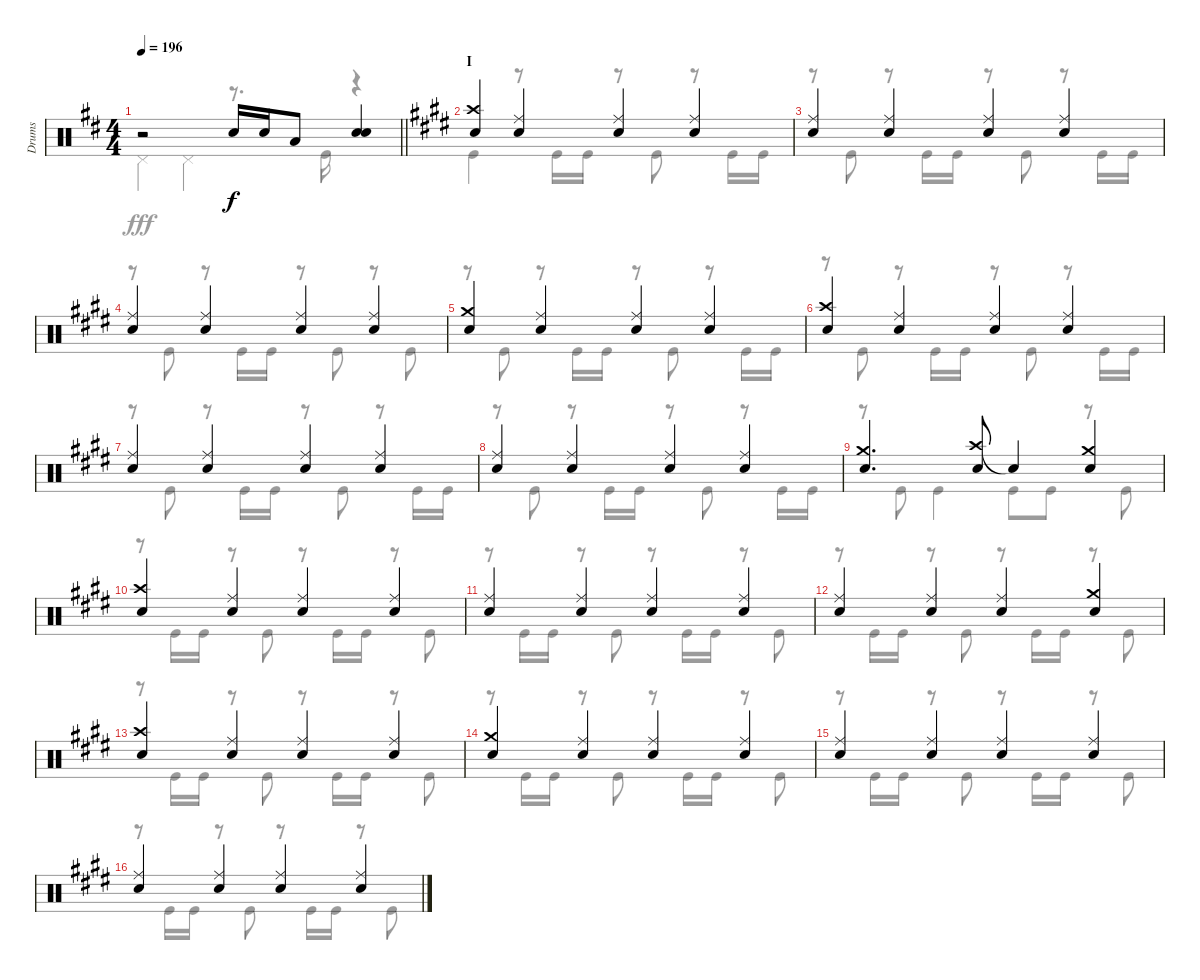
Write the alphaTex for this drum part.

\track ("Drums" "Drums") {instrument percussion}
\staff {score}
\articulation defaults
\voice
\ts (4 4)
\tempo 196
\clef neutral
\barLineRight lightlight
\ks d
r.2{dy f} "Snare (hit) 2".16 "Snare (hit) 2".16 "Low Tom (hit)".8 ("Snare (hit) 2" "Snare (hit) 2").4 |
\section ("" "I")
\ks e
("Crash high (hit)" "Snare (hit) 2").4 ("Ride (middle)" "Snare (hit) 2").4 ("Ride (middle)" "Snare (hit) 2").4 ("Ride (middle)" "Snare (hit) 2").4 |
("Ride (middle)" "Snare (hit) 2").4 ("Ride (middle)" "Snare (hit) 2").4 ("Ride (middle)" "Snare (hit) 2").4 ("Ride (middle)" "Snare (hit) 2").4 |
("Ride (middle)" "Snare (hit) 2").4 ("Ride (middle)" "Snare (hit) 2").4 ("Ride (middle)" "Snare (hit) 2").4 ("Ride (middle)" "Snare (hit) 2").4 |
("Crash medium (hit)" "Snare (hit) 2").4 ("Ride (middle)" "Snare (hit) 2").4 ("Ride (middle)" "Snare (hit) 2").4 ("Ride (middle)" "Snare (hit) 2").4 |
("Crash high (hit)" "Snare (hit) 2").4 ("Ride (middle)" "Snare (hit) 2").4 ("Ride (middle)" "Snare (hit) 2").4 ("Ride (middle)" "Snare (hit) 2").4 |
("Ride (middle)" "Snare (hit) 2").4 ("Ride (middle)" "Snare (hit) 2").4 ("Ride (middle)" "Snare (hit) 2").4 ("Ride (middle)" "Snare (hit) 2").4 |
("Ride (middle)" "Snare (hit) 2").4 ("Ride (middle)" "Snare (hit) 2").4 ("Ride (middle)" "Snare (hit) 2").4 ("Ride (middle)" "Snare (hit) 2").4 |
("Crash medium (hit)" "Snare (hit) 2").4{d} ("Crash high (hit)" "Snare (hit) 2").8 "Snare (hit)"{t}.4 ("Crash medium (hit)" "Snare (hit) 2").4 |
("Crash high (hit)" "Snare (hit) 2").4 ("Ride (middle)" "Snare (hit) 2").4 ("Ride (middle)" "Snare (hit) 2").4 ("Ride (middle)" "Snare (hit) 2").4 |
("Ride (middle)" "Snare (hit) 2").4 ("Ride (middle)" "Snare (hit) 2").4 ("Ride (middle)" "Snare (hit) 2").4 ("Ride (middle)" "Snare (hit) 2").4 |
("Ride (middle)" "Snare (hit) 2").4 ("Ride (middle)" "Snare (hit) 2").4 ("Ride (middle)" "Snare (hit) 2").4 ("Crash medium (hit)" "Snare (hit) 2").4 |
("Crash high (hit)" "Snare (hit) 2").4 ("Ride (middle)" "Snare (hit) 2").4 ("Ride (middle)" "Snare (hit) 2").4 ("Ride (middle)" "Snare (hit) 2").4 |
("Crash medium (hit)" "Snare (hit) 2").4 ("Ride (middle)" "Snare (hit) 2").4 ("Ride (middle)" "Snare (hit) 2").4 ("Ride (middle)" "Snare (hit) 2").4 |
("Ride (middle)" "Snare (hit) 2").4 ("Ride (middle)" "Snare (hit) 2").4 ("Ride (middle)" "Snare (hit) 2").4 ("Ride (middle)" "Snare (hit) 2").4 |
("Ride (middle)" "Snare (hit) 2").4 ("Ride (middle)" "Snare (hit) 2").4 ("Ride (middle)" "Snare (hit) 2").4 ("Ride (middle)" "Snare (hit) 2").4
\voice
\clef neutral
\ottava regular
\simile none
\barLineRight lightlight
\ks d "Pedal Hi-Hat (hit)".4{dy fff} "Pedal Hi-Hat (hit)".4
r.8{d} "Kick (hit)".16 r.4 |
\ks e "Kick (hit)".4
r.8 "Kick (hit)".16 "Kick (hit)".16 r.8 "Kick (hit)".8 r.8 "Kick (hit)".16 "Kick (hit)".16 |
r.8 "Kick (hit)".8 r.8 "Kick (hit)".16 "Kick (hit)".16 r.8 "Kick (hit)".8 r.8 "Kick (hit)".16 "Kick (hit)".16 |
r.8 "Kick (hit)".8 r.8 "Kick (hit)".16 "Kick (hit)".16 r.8 "Kick (hit)".8 r.8 "Kick (hit)".8 |
r.8 "Kick (hit)".8 r.8 "Kick (hit)".16 "Kick (hit)".16 r.8 "Kick (hit)".8 r.8 "Kick (hit)".16 "Kick (hit)".16 |
r.8 "Kick (hit)".8 r.8 "Kick (hit)".16 "Kick (hit)".16 r.8 "Kick (hit)".8 r.8 "Kick (hit)".16 "Kick (hit)".16 |
r.8 "Kick (hit)".8 r.8 "Kick (hit)".16 "Kick (hit)".16 r.8 "Kick (hit)".8 r.8 "Kick (hit)".16 "Kick (hit)".16 |
r.8 "Kick (hit)".8 r.8 "Kick (hit)".16 "Kick (hit)".16 r.8 "Kick (hit)".8 r.8 "Kick (hit)".16 "Kick (hit)".16 |
r.8 "Kick (hit)".8 "Kick (hit)".4 "Kick (hit)".8 "Kick (hit)".8 r.8 "Kick (hit)".8 |
r.8 "Kick (hit)".16 "Kick (hit)".16 r.8 "Kick (hit)".8 r.8 "Kick (hit)".16 "Kick (hit)".16 r.8 "Kick (hit)".8 |
r.8 "Kick (hit)".16 "Kick (hit)".16 r.8 "Kick (hit)".8 r.8 "Kick (hit)".16 "Kick (hit)".16 r.8 "Kick (hit)".8 |
r.8 "Kick (hit)".16 "Kick (hit)".16 r.8 "Kick (hit)".8 r.8 "Kick (hit)".16 "Kick (hit)".16 r.8 "Kick (hit)".8 |
r.8 "Kick (hit)".16 "Kick (hit)".16 r.8 "Kick (hit)".8 r.8 "Kick (hit)".16 "Kick (hit)".16 r.8 "Kick (hit)".8 |
r.8 "Kick (hit)".16 "Kick (hit)".16 r.8 "Kick (hit)".8 r.8 "Kick (hit)".16 "Kick (hit)".16 r.8 "Kick (hit)".8 |
r.8 "Kick (hit)".16 "Kick (hit)".16 r.8 "Kick (hit)".8 r.8 "Kick (hit)".16 "Kick (hit)".16 r.8 "Kick (hit)".8 |
r.8 "Kick (hit)".16 "Kick (hit)".16 r.8 "Kick (hit)".8 r.8 "Kick (hit)".16 "Kick (hit)".16 r.8 "Kick (hit)".8
